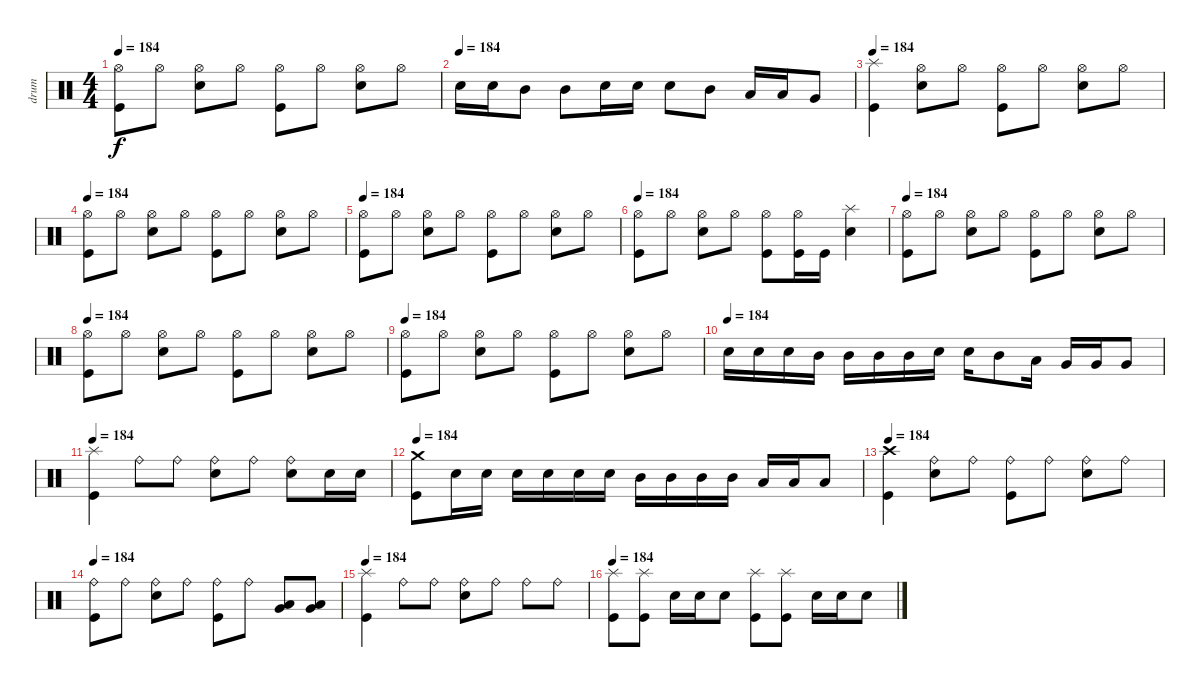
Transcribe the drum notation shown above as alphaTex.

\track ("drum" "drum") {instrument percussion}
\staff {score}
\articulation defaults
\ts (4 4)
\tempo 184
\clef neutral
\ks c
("Kick (hit)" "Hi-Hat (open)").8{dy f} "Hi-Hat (open)".8 ("Electric Snare (hit)" "Hi-Hat (open)").8 "Hi-Hat (open)".8 ("Kick (hit)" "Hi-Hat (open)").8 "Hi-Hat (open)".8 ("Electric Snare (hit)" "Hi-Hat (open)").8 "Hi-Hat (open)".8 |
\tempo (184)
"Electric Snare (hit)".16 "Electric Snare (hit)".16 "Mid Tom (hit)".8 "Mid Tom (hit)".8 "Electric Snare (hit)".16 "Electric Snare (hit)".16 "Electric Snare (hit)".8 "Mid Tom (hit)".8 "Low Tom (hit)".16 "Low Tom (hit)".16 "Very Low Tom (hit)".8 |
\tempo 184
("Kick (hit)" "Splash (hit)").4 ("Electric Snare (hit)" "Hi-Hat (open)").8 "Hi-Hat (open)".8 ("Kick (hit)" "Hi-Hat (open)").8 "Hi-Hat (open)".8 ("Electric Snare (hit)" "Hi-Hat (open)").8 "Hi-Hat (open)".8 |
\tempo 184
("Kick (hit)" "Hi-Hat (open)").8 "Hi-Hat (open)".8 ("Electric Snare (hit)" "Hi-Hat (open)").8 "Hi-Hat (open)".8 ("Kick (hit)" "Hi-Hat (open)").8 "Hi-Hat (open)".8 ("Electric Snare (hit)" "Hi-Hat (open)").8 "Hi-Hat (open)".8 |
\tempo 184
("Kick (hit)" "Hi-Hat (open)").8 "Hi-Hat (open)".8 ("Electric Snare (hit)" "Hi-Hat (open)").8 "Hi-Hat (open)".8 ("Kick (hit)" "Hi-Hat (open)").8 "Hi-Hat (open)".8 ("Electric Snare (hit)" "Hi-Hat (open)").8 "Hi-Hat (open)".8 |
\tempo 184
("Kick (hit)" "Hi-Hat (open)").8 "Hi-Hat (open)".8 ("Electric Snare (hit)" "Hi-Hat (open)").8 "Hi-Hat (open)".8 ("Kick (hit)" "Hi-Hat (open)").8 ("Kick (hit)" "Hi-Hat (open)").16 "Kick (hit)".16 ("Electric Snare (hit)" "Splash (hit)").4 |
\tempo 184
("Kick (hit)" "Hi-Hat (open)").8 "Hi-Hat (open)".8 ("Electric Snare (hit)" "Hi-Hat (open)").8 "Hi-Hat (open)".8 ("Kick (hit)" "Hi-Hat (open)").8 "Hi-Hat (open)".8 ("Electric Snare (hit)" "Hi-Hat (open)").8 "Hi-Hat (open)".8 |
\tempo 184
("Kick (hit)" "Hi-Hat (open)").8 "Hi-Hat (open)".8 ("Electric Snare (hit)" "Hi-Hat (open)").8 "Hi-Hat (open)".8 ("Kick (hit)" "Hi-Hat (open)").8 "Hi-Hat (open)".8 ("Electric Snare (hit)" "Hi-Hat (open)").8 "Hi-Hat (open)".8 |
\tempo 184
("Kick (hit)" "Hi-Hat (open)").8 "Hi-Hat (open)".8 ("Electric Snare (hit)" "Hi-Hat (open)").8 "Hi-Hat (open)".8 ("Kick (hit)" "Hi-Hat (open)").8 "Hi-Hat (open)".8 ("Electric Snare (hit)" "Hi-Hat (open)").8 "Hi-Hat (open)".8 |
\tempo (184)
"Electric Snare (hit)".16 "Electric Snare (hit)".16 "Electric Snare (hit)".16 "Mid Tom (hit)".16 "Mid Tom (hit)".16 "Mid Tom (hit)".16 "Mid Tom (hit)".16 "Electric Snare (hit)".16 "Electric Snare (hit)".16 "Mid Tom (hit)".8 "Low Tom (hit)".16 "Very Low Tom (hit)".16 "Very Low Tom (hit)".16 "Very Low Tom (hit)".8 |
\tempo 184
("Kick (hit)" "Splash (hit)").4 "Ride (bell)".8 "Ride (bell)".8 ("Electric Snare (hit)" "Ride (bell)").8 "Ride (bell)".8 ("Electric Snare (hit)" "Ride (bell)").8 "Electric Snare (hit)".16 "Electric Snare (hit)".16 |
\tempo 184
("Kick (hit)" "Crash medium (hit)").8 "Electric Snare (hit)".16 "Electric Snare (hit)".16 "Electric Snare (hit)".16 "Electric Snare (hit)".16 "Electric Snare (hit)".16 "Electric Snare (hit)".16 "Mid Tom (hit)".16 "Mid Tom (hit)".16 "Mid Tom (hit)".16 "Mid Tom (hit)".16 "Low Tom (hit)".16 "Low Tom (hit)".16 "Low Tom (hit)".8 |
\tempo 184
("Kick (hit)" "Crash high (hit)").4 ("Electric Snare (hit)" "Ride (bell)").8 "Ride (bell)".8 ("Kick (hit)" "Ride (bell)").8 "Ride (bell)".8 ("Electric Snare (hit)" "Ride (bell)").8 "Ride (bell)".8 |
\tempo 184
("Kick (hit)" "Ride (bell)").8 "Ride (bell)".8 ("Electric Snare (hit)" "Ride (bell)").8 "Ride (bell)".8 ("Kick (hit)" "Ride (bell)").8 "Ride (bell)".8 ("Low Tom (hit)" "Very Low Tom (hit)").8 ("Low Tom (hit)" "Very Low Tom (hit)").8 |
\tempo 184
("Kick (hit)" "Splash (hit)").4 "Ride (bell)".8 "Ride (bell)".8 ("Electric Snare (hit)" "Ride (bell)").8 "Ride (bell)".8 "Ride (bell)".8 "Ride (bell)".8 |
\tempo 184
("Kick (hit)" "Splash (hit)").8 ("Kick (hit)" "Splash (hit)").8 "Electric Snare (hit)".16 "Electric Snare (hit)".16 "Electric Snare (hit)".8 ("Kick (hit)" "Splash (hit)").8 ("Kick (hit)" "Splash (hit)").8 "Electric Snare (hit)".16 "Electric Snare (hit)".16 "Electric Snare (hit)".8
